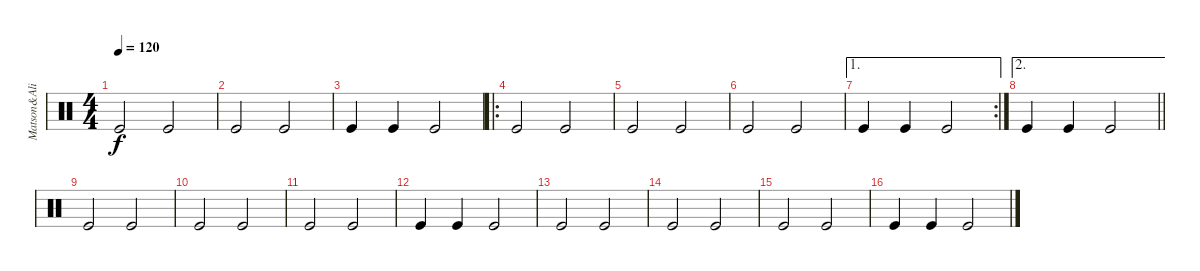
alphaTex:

\track ("Matson&Ali" "Matson&Ali") {instrument percussion}
\staff {score}
\articulation defaults
\ts (4 4)
\tempo 120
\clef neutral
\ks c "Kick (hit)".2{dy f} "Kick (hit)".2
|
"Kick (hit)".2 "Kick (hit)".2 |
"Kick (hit)".4 "Kick (hit)".4 "Kick (hit)".2 |
\ro "Kick (hit)".2 "Kick (hit)".2
|
"Kick (hit)".2 "Kick (hit)".2 |
"Kick (hit)".2 "Kick (hit)".2 |
\ae 1
\rc 2 "Kick (hit)".4 "Kick (hit)".4 "Kick (hit)".2
|
\ae 2
\barLineRight lightlight "Kick (hit)".4 "Kick (hit)".4 "Kick (hit)".2
|
"Kick (hit)".2 "Kick (hit)".2 |
"Kick (hit)".2 "Kick (hit)".2 |
"Kick (hit)".2 "Kick (hit)".2 |
"Kick (hit)".4 "Kick (hit)".4 "Kick (hit)".2 |
"Kick (hit)".2 "Kick (hit)".2 |
"Kick (hit)".2 "Kick (hit)".2 |
"Kick (hit)".2 "Kick (hit)".2 |
"Kick (hit)".4 "Kick (hit)".4 "Kick (hit)".2
